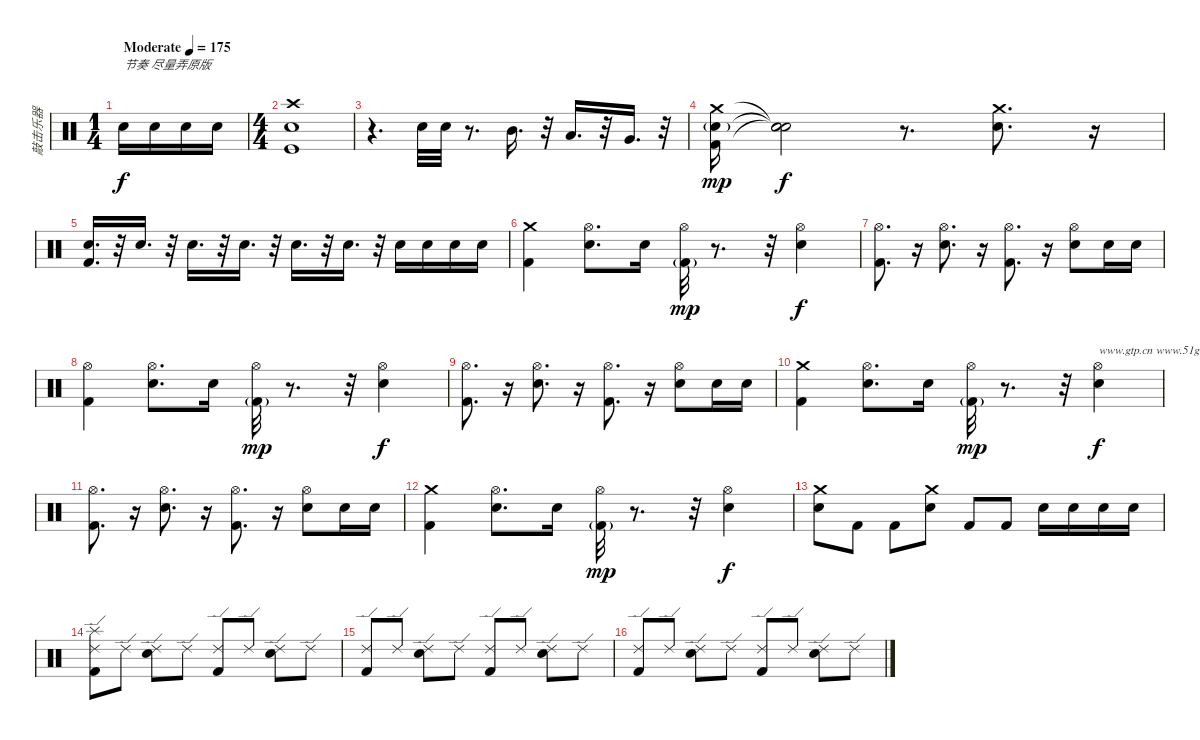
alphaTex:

\track ("敲击乐器" "敲击乐器") {instrument percussion}
\staff {score}
\articulation defaults
\ts (1 4)
\tempo (175 "Moderate")
\clef neutral
\ks c "Snare (hit) 2".16{txt "节奏 尽量弄原版" dy f} "Snare (hit) 2".16 "Snare (hit) 2".16 "Snare (hit) 2".16
|
\ts (4 4)
("Crash high (hit)" "Snare (hit) 2" "Kick (hit)").1 |
r.4{d} "Electric Snare (hit)".32 "Electric Snare (hit)".32 r.8{d} "Mid Tom (hit)".16{d} r.32 "Low Tom (hit)".16{d} r.32 "Very Low Tom (hit)".16{d} r.32 |
("Electric Snare (hit)"{g} "Kick (hit) 2" "Crash medium (hit)").16{dy mp} ("Snare (hit)"{t} "Snare (hit)"{t} "Snare (hit)"{t}).2{dy f} r.8{d} ("Electric Snare (hit)" "Crash medium (hit)").8{d} r.16 |
("Kick (hit) 2" "Electric Snare (hit)").16{d} r.32 "Electric Snare (hit)".16{d} r.32 "Electric Snare (hit)".16{d} r.32 "Electric Snare (hit)".16{d} r.32 "Electric Snare (hit)".16{d} r.32 "Electric Snare (hit)".16{d} r.32 "Electric Snare (hit)".16 "Electric Snare (hit)".16 "Electric Snare (hit)".16 "Electric Snare (hit)".16 |
("Crash medium (hit)" "Kick (hit) 2").4 ("Hi-Hat (open)" "Electric Snare (hit)").8{d} "Electric Snare (hit)".16 ("Hi-Hat (open)" "Kick (hit) 2"{g}).32{dy mp} r.8{d} r.32 ("Hi-Hat (open)" "Electric Snare (hit)").4{dy f} |
("Hi-Hat (open)" "Kick (hit) 2").8{d} r.16 ("Hi-Hat (open)" "Electric Snare (hit)").8{d} r.16 ("Hi-Hat (open)" "Kick (hit) 2").8{d} r.16 ("Hi-Hat (open)" "Electric Snare (hit)").8 "Electric Snare (hit)".16 "Electric Snare (hit)".16 |
("Hi-Hat (open)" "Kick (hit) 2").4 ("Hi-Hat (open)" "Electric Snare (hit)").8{d} "Electric Snare (hit)".16 ("Hi-Hat (open)" "Kick (hit) 2"{g}).32{dy mp} r.8{d} r.32 ("Hi-Hat (open)" "Electric Snare (hit)").4{dy f} |
("Hi-Hat (open)" "Kick (hit) 2").8{d} r.16 ("Hi-Hat (open)" "Electric Snare (hit)").8{d} r.16 ("Hi-Hat (open)" "Kick (hit) 2").8{d} r.16 ("Hi-Hat (open)" "Electric Snare (hit)").8 "Electric Snare (hit)".16 "Electric Snare (hit)".16 |
("Crash medium (hit)" "Kick (hit) 2").4 ("Hi-Hat (open)" "Electric Snare (hit)").8{d} "Electric Snare (hit)".16 ("Hi-Hat (open)" "Kick (hit) 2"{g}).32{dy mp} r.8{d} r.32 ("Hi-Hat (open)" "Electric Snare (hit)").4{txt "www.gtp.cn www.51gtp.com联合为您提供优秀的GTP!" dy f} |
("Hi-Hat (open)" "Kick (hit) 2").8{d} r.16 ("Hi-Hat (open)" "Electric Snare (hit)").8{d} r.16 ("Hi-Hat (open)" "Kick (hit) 2").8{d} r.16 ("Hi-Hat (open)" "Electric Snare (hit)").8 "Electric Snare (hit)".16 "Electric Snare (hit)".16 |
("Crash medium (hit)" "Kick (hit) 2").4 ("Hi-Hat (open)" "Electric Snare (hit)").8{d} "Electric Snare (hit)".16 ("Hi-Hat (open)" "Kick (hit) 2"{g}).32{dy mp} r.8{d} r.32 ("Hi-Hat (open)" "Electric Snare (hit)").4{dy f} |
("Electric Snare (hit)" "Crash medium (hit)").8 "Kick (hit) 2".8 "Kick (hit) 2".8 ("Electric Snare (hit)" "Crash medium (hit)").8 "Kick (hit) 2".8 "Kick (hit) 2".8 "Electric Snare (hit)".16 "Electric Snare (hit)".16 "Electric Snare (hit)".16 "Electric Snare (hit)".16 |
("Kick (hit) 2" "Ride (edge) 2" "Splash (hit)").8 "Ride (edge) 2".8 ("Electric Snare (hit)" "Ride (edge) 2").8 "Ride (edge) 2".8 ("Kick (hit) 2" "Ride (edge) 2").8 "Ride (edge) 2".8 ("Electric Snare (hit)" "Ride (edge) 2").8 "Ride (edge) 2".8 |
("Kick (hit) 2" "Ride (edge) 2").8 "Ride (edge) 2".8 ("Electric Snare (hit)" "Ride (edge) 2").8 "Ride (edge) 2".8 ("Kick (hit) 2" "Ride (edge) 2").8 "Ride (edge) 2".8 ("Electric Snare (hit)" "Ride (edge) 2").8 "Ride (edge) 2".8 |
("Kick (hit) 2" "Ride (edge) 2").8 "Ride (edge) 2".8 ("Electric Snare (hit)" "Ride (edge) 2").8 "Ride (edge) 2".8 ("Kick (hit) 2" "Ride (edge) 2").8 "Ride (edge) 2".8 ("Electric Snare (hit)" "Ride (edge) 2").8 "Ride (edge) 2".8
